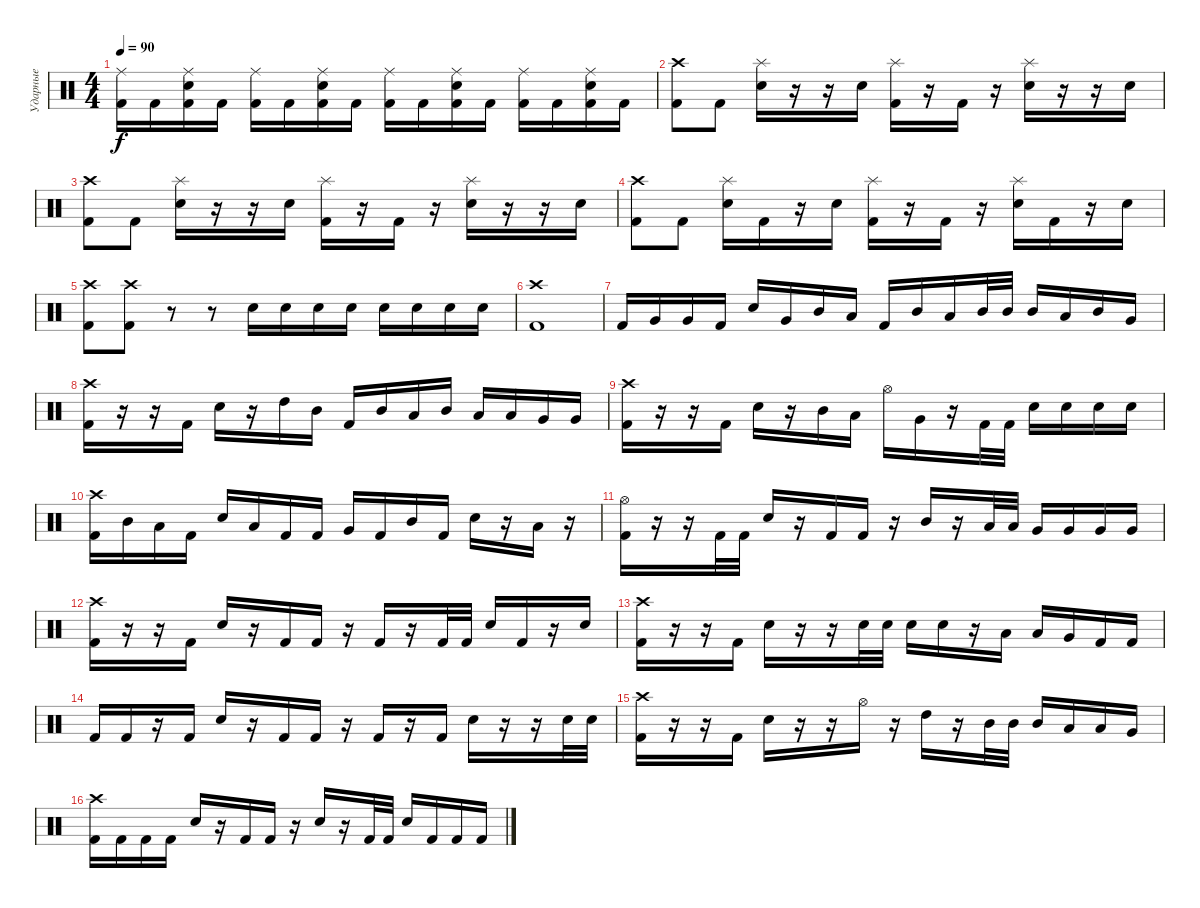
\track ("Ударные" "Ударные") {instrument percussion}
\staff {score}
\articulation defaults
\ts (4 4)
\tempo 90
\clef neutral
\ks c
("Ride (middle)" "Kick (hit) 2").16{dy f} "Kick (hit) 2".16 ("Ride (middle)" "Snare (hit) 2" "Kick (hit) 2").16 "Kick (hit) 2".16 ("Ride (middle)" "Kick (hit) 2").16 "Kick (hit) 2".16 ("Ride (middle)" "Snare (hit) 2" "Kick (hit) 2").16 "Kick (hit) 2".16 ("Ride (middle)" "Kick (hit) 2").16 "Kick (hit) 2".16 ("Ride (middle)" "Snare (hit) 2" "Kick (hit) 2").16 "Kick (hit) 2".16 ("Ride (middle)" "Kick (hit) 2").16 "Kick (hit) 2".16 ("Ride (middle)" "Snare (hit) 2" "Kick (hit) 2").16 "Kick (hit) 2".16 |
("Crash high (hit)" "Kick (hit) 2").8 "Kick (hit) 2".8 ("Splash (hit)" "Snare (hit) 2").16 r.16 r.16 "Snare (hit) 2".16 ("Splash (hit)" "Kick (hit) 2").16 r.16 "Kick (hit) 2".16 r.16 ("Splash (hit)" "Snare (hit) 2").16 r.16 r.16 "Snare (hit) 2".16 |
("Crash high (hit)" "Kick (hit) 2").8 "Kick (hit) 2".8 ("Splash (hit)" "Snare (hit) 2").16 r.16 r.16 "Snare (hit) 2".16 ("Splash (hit)" "Kick (hit) 2").16 r.16 "Kick (hit) 2".16 r.16 ("Splash (hit)" "Snare (hit) 2").16 r.16 r.16 "Snare (hit) 2".16 |
("Crash high (hit)" "Kick (hit) 2").8 "Kick (hit) 2".8 ("Splash (hit)" "Snare (hit) 2").16 "Kick (hit) 2".16 r.16 "Snare (hit) 2".16 ("Splash (hit)" "Kick (hit) 2").16 r.16 "Kick (hit) 2".16 r.16 ("Splash (hit)" "Snare (hit) 2").16 "Kick (hit) 2".16 r.16 "Snare (hit) 2".16 |
("Crash high (hit)" "Kick (hit) 2").8 ("Crash high (hit)" "Kick (hit) 2").8 r.8 r.8 "Snare (hit) 2".16 "Snare (hit) 2".16 "Snare (hit) 2".16 "Snare (hit) 2".16 "Snare (hit) 2".16 "Snare (hit) 2".16 "Snare (hit) 2".16 "Snare (hit) 2".16 |
("Crash high (hit)" "Kick (hit) 2").1 |
"Kick (hit) 2".16 "Very Low Tom (hit)".16 "Very Low Tom (hit)".16 "Kick (hit) 2".16 "Snare (hit) 2".16 "Very Low Tom (hit)".16 "Mid Tom (hit)".16 "Low Tom (hit)".16 "Kick (hit) 2".16 "Mid Tom (hit)".16 "Low Tom (hit)".16 "Mid Tom (hit)".32 "Mid Tom (hit)".32 "Mid Tom (hit)".16 "Low Tom (hit)".16 "Mid Tom (hit)".16 "Very Low Tom (hit)".16 |
("Crash high (hit)" "Kick (hit) 2").16 r.16 r.16 "Kick (hit) 2".16 "Snare (hit) 2".16 r.16 "High Tom (hit)".16 "Mid Tom (hit)".16 "Kick (hit) 2".16 "Mid Tom (hit)".16 "Low Tom (hit)".16 "Mid Tom (hit)".16 "Low Tom (hit)".16 "Low Tom (hit)".16 "Very Low Tom (hit)".16 "Very Low Tom (hit)".16 |
("Crash high (hit)" "Kick (hit) 2").16 r.16 r.16 "Kick (hit) 2".16 "Snare (hit) 2".16 r.16 "Mid Tom (hit)".16 "Low Tom (hit)".16 "Hi-Hat (open)".16 "Very Low Tom (hit)".16 r.16 "Kick (hit) 2".32 "Kick (hit) 2".32 "Snare (hit) 2".16 "Snare (hit) 2".16 "Snare (hit) 2".16 "Snare (hit) 2".16 |
("Crash high (hit)" "Kick (hit) 2").16 "Mid Tom (hit)".16 "Low Tom (hit)".16 "Kick (hit) 2".16 "Snare (hit) 2".16 "Low Tom (hit)".16 "Kick (hit) 2".16 "Kick (hit) 2".16 "Very Low Tom (hit)".16 "Kick (hit) 2".16 "Mid Tom (hit)".16 "Kick (hit) 2".16 "Snare (hit) 2".16 r.16 "Low Tom (hit)".16 r.16 |
("Hi-Hat (open)" "Kick (hit) 2").16 r.16 r.16 "Kick (hit) 2".32 "Kick (hit) 2".32 "Snare (hit) 2".16 r.16 "Kick (hit) 2".16 "Kick (hit) 2".16 r.16 "Mid Tom (hit)".16 r.16 "Low Tom (hit)".32 "Low Tom (hit)".32 "Very Low Tom (hit)".16 "Very Low Tom (hit)".16 "Very Low Tom (hit)".16 "Very Low Tom (hit)".16 |
("Crash high (hit)" "Kick (hit) 2").16 r.16 r.16 "Kick (hit) 2".16 "Snare (hit) 2".16 r.16 "Kick (hit) 2".16 "Kick (hit) 2".16 r.16 "Kick (hit) 2".16 r.16 "Kick (hit) 2".32 "Kick (hit) 2".32 "Snare (hit) 2".16 "Kick (hit) 2".16 r.16 "Snare (hit) 2".16 |
("Crash high (hit)" "Kick (hit) 2").16 r.16 r.16 "Kick (hit) 2".16 "Snare (hit) 2".16 r.16 r.16 "Snare (hit) 2".32 "Snare (hit) 2".32 "Snare (hit) 2".16 "Snare (hit) 2".16 r.16 "Low Tom (hit)".16 "Low Tom (hit)".16 "Very Low Tom (hit)".16 "Kick (hit) 2".16 "Kick (hit) 2".16 |
"Kick (hit) 2".16 "Kick (hit) 2".16 r.16 "Kick (hit) 2".16 "Snare (hit) 2".16 r.16 "Kick (hit) 2".16 "Kick (hit) 2".16 r.16 "Kick (hit) 2".16 r.16 "Kick (hit) 2".16 "Snare (hit) 2".16 r.16 r.16 "Snare (hit) 2".32 "Snare (hit) 2".32 |
("Crash high (hit)" "Kick (hit) 2").16 r.16 r.16 "Kick (hit) 2".16 "Snare (hit) 2".16 r.16 r.16 "Hi-Hat (open)".16 r.16 "High Tom (hit)".16 r.16 "Mid Tom (hit)".32 "Mid Tom (hit)".32 "Mid Tom (hit)".16 "Low Tom (hit)".16 "Low Tom (hit)".16 "Very Low Tom (hit)".16 |
("Crash high (hit)" "Kick (hit) 2").16 "Kick (hit) 2".16 "Kick (hit) 2".16 "Kick (hit) 2".16 "Snare (hit) 2".16 r.16 "Kick (hit) 2".16 "Kick (hit) 2".16 r.16 "Snare (hit) 2".16 r.16 "Kick (hit) 2".32 "Kick (hit) 2".32 "Snare (hit) 2".16 "Kick (hit) 2".16 "Kick (hit) 2".16 "Kick (hit) 2".16
